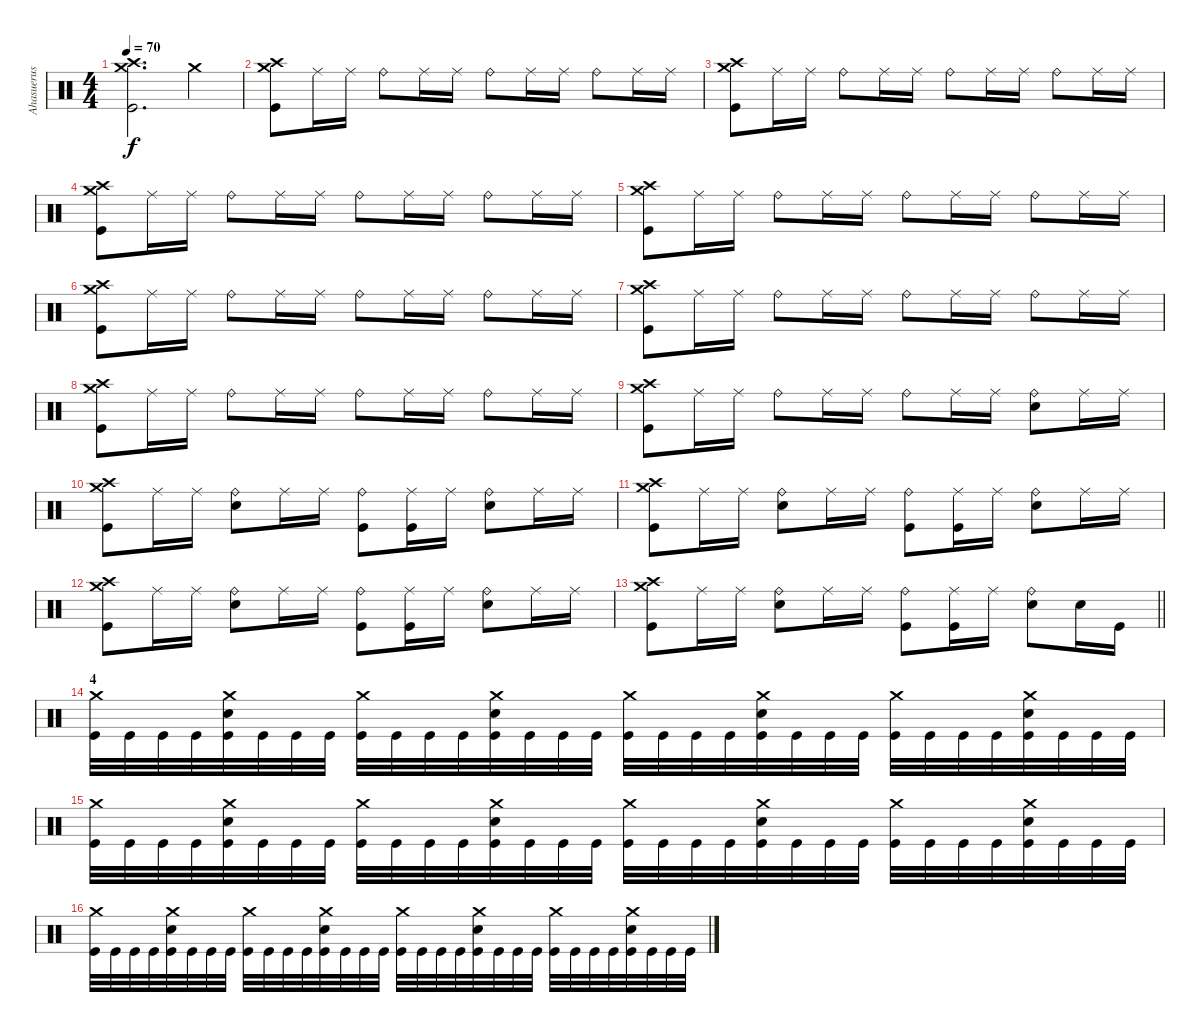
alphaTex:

\track ("Ahasuerus" "Ahasuerus") {instrument percussion}
\staff {score}
\articulation defaults
\ts (4 4)
\tempo 70
\clef neutral
\ks c
("Crash medium (hit)" "Crash high (hit)" "Kick (hit)").2{d dy f} "Crash medium (hit)".4 |
("Crash medium (hit)" "Crash high (hit)" "Kick (hit)").8 "Ride (middle)".16 "Ride (middle)".16 "Ride (bell)".8 "Ride (middle)".16 "Ride (middle)".16 "Ride (bell)".8 "Ride (middle)".16 "Ride (middle)".16 "Ride (bell)".8 "Ride (middle)".16 "Ride (middle)".16 |
("Crash medium (hit)" "Crash high (hit)" "Kick (hit)").8 "Ride (middle)".16 "Ride (middle)".16 "Ride (bell)".8 "Ride (middle)".16 "Ride (middle)".16 "Ride (bell)".8 "Ride (middle)".16 "Ride (middle)".16 "Ride (bell)".8 "Ride (middle)".16 "Ride (middle)".16 |
("Crash medium (hit)" "Crash high (hit)" "Kick (hit)").8 "Ride (middle)".16 "Ride (middle)".16 "Ride (bell)".8 "Ride (middle)".16 "Ride (middle)".16 "Ride (bell)".8 "Ride (middle)".16 "Ride (middle)".16 "Ride (bell)".8 "Ride (middle)".16 "Ride (middle)".16 |
("Crash medium (hit)" "Crash high (hit)" "Kick (hit)").8 "Ride (middle)".16 "Ride (middle)".16 "Ride (bell)".8 "Ride (middle)".16 "Ride (middle)".16 "Ride (bell)".8 "Ride (middle)".16 "Ride (middle)".16 "Ride (bell)".8 "Ride (middle)".16 "Ride (middle)".16 |
("Crash medium (hit)" "Crash high (hit)" "Kick (hit)").8 "Ride (middle)".16 "Ride (middle)".16 "Ride (bell)".8 "Ride (middle)".16 "Ride (middle)".16 "Ride (bell)".8 "Ride (middle)".16 "Ride (middle)".16 "Ride (bell)".8 "Ride (middle)".16 "Ride (middle)".16 |
("Crash medium (hit)" "Crash high (hit)" "Kick (hit)").8 "Ride (middle)".16 "Ride (middle)".16 "Ride (bell)".8 "Ride (middle)".16 "Ride (middle)".16 "Ride (bell)".8 "Ride (middle)".16 "Ride (middle)".16 "Ride (bell)".8 "Ride (middle)".16 "Ride (middle)".16 |
("Crash medium (hit)" "Crash high (hit)" "Kick (hit)").8 "Ride (middle)".16 "Ride (middle)".16 "Ride (bell)".8 "Ride (middle)".16 "Ride (middle)".16 "Ride (bell)".8 "Ride (middle)".16 "Ride (middle)".16 "Ride (bell)".8 "Ride (middle)".16 "Ride (middle)".16 |
("Crash medium (hit)" "Crash high (hit)" "Kick (hit)").8 "Ride (middle)".16 "Ride (middle)".16 "Ride (bell)".8 "Ride (middle)".16 "Ride (middle)".16 "Ride (bell)".8 "Ride (middle)".16 "Ride (middle)".16 ("Ride (bell)" "Electric Snare (hit)").8 "Ride (middle)".16 "Ride (middle)".16 |
("Crash medium (hit)" "Crash high (hit)" "Kick (hit)").8 "Ride (middle)".16 "Ride (middle)".16 ("Ride (bell)" "Electric Snare (hit)").8 "Ride (middle)".16 "Ride (middle)".16 ("Ride (bell)" "Kick (hit)").8 ("Ride (middle)" "Kick (hit)").16 "Ride (middle)".16 ("Ride (bell)" "Electric Snare (hit)").8 "Ride (middle)".16 "Ride (middle)".16 |
("Crash medium (hit)" "Crash high (hit)" "Kick (hit)").8 "Ride (middle)".16 "Ride (middle)".16 ("Ride (bell)" "Electric Snare (hit)").8 "Ride (middle)".16 "Ride (middle)".16 ("Ride (bell)" "Kick (hit)").8 ("Ride (middle)" "Kick (hit)").16 "Ride (middle)".16 ("Ride (bell)" "Electric Snare (hit)").8 "Ride (middle)".16 "Ride (middle)".16 |
("Crash medium (hit)" "Crash high (hit)" "Kick (hit)").8 "Ride (middle)".16 "Ride (middle)".16 ("Ride (bell)" "Electric Snare (hit)").8 "Ride (middle)".16 "Ride (middle)".16 ("Ride (bell)" "Kick (hit)").8 ("Ride (middle)" "Kick (hit)").16 "Ride (middle)".16 ("Ride (bell)" "Electric Snare (hit)").8 "Ride (middle)".16 "Ride (middle)".16 |
\barLineRight lightlight
("Crash medium (hit)" "Crash high (hit)" "Kick (hit)").8 "Ride (middle)".16 "Ride (middle)".16 ("Ride (bell)" "Electric Snare (hit)").8 "Ride (middle)".16 "Ride (middle)".16 ("Ride (bell)" "Kick (hit)").8 ("Ride (middle)" "Kick (hit)").16 "Ride (middle)".16 ("Ride (bell)" "Electric Snare (hit)").8 "Electric Snare (hit)".16 "Kick (hit)".16 |
\section ("" "4")
("Crash medium (hit)" "Kick (hit)").32 "Kick (hit)".32 "Kick (hit)".32 "Kick (hit)".32 ("Crash medium (hit)" "Electric Snare (hit)" "Kick (hit)").32 "Kick (hit)".32 "Kick (hit)".32 "Kick (hit)".32 ("Crash medium (hit)" "Kick (hit)").32 "Kick (hit)".32 "Kick (hit)".32 "Kick (hit)".32 ("Crash medium (hit)" "Electric Snare (hit)" "Kick (hit)").32 "Kick (hit)".32 "Kick (hit)".32 "Kick (hit)".32 ("Crash medium (hit)" "Kick (hit)").32 "Kick (hit)".32 "Kick (hit)".32 "Kick (hit)".32 ("Crash medium (hit)" "Electric Snare (hit)" "Kick (hit)").32 "Kick (hit)".32 "Kick (hit)".32 "Kick (hit)".32 ("Crash medium (hit)" "Kick (hit)").32 "Kick (hit)".32 "Kick (hit)".32 "Kick (hit)".32 ("Crash medium (hit)" "Electric Snare (hit)" "Kick (hit)").32 "Kick (hit)".32 "Kick (hit)".32 "Kick (hit)".32 |
("Crash medium (hit)" "Kick (hit)").32 "Kick (hit)".32 "Kick (hit)".32 "Kick (hit)".32 ("Crash medium (hit)" "Electric Snare (hit)" "Kick (hit)").32 "Kick (hit)".32 "Kick (hit)".32 "Kick (hit)".32 ("Crash medium (hit)" "Kick (hit)").32 "Kick (hit)".32 "Kick (hit)".32 "Kick (hit)".32 ("Crash medium (hit)" "Electric Snare (hit)" "Kick (hit)").32 "Kick (hit)".32 "Kick (hit)".32 "Kick (hit)".32 ("Crash medium (hit)" "Kick (hit)").32 "Kick (hit)".32 "Kick (hit)".32 "Kick (hit)".32 ("Crash medium (hit)" "Electric Snare (hit)" "Kick (hit)").32 "Kick (hit)".32 "Kick (hit)".32 "Kick (hit)".32 ("Crash medium (hit)" "Kick (hit)").32 "Kick (hit)".32 "Kick (hit)".32 "Kick (hit)".32 ("Crash medium (hit)" "Electric Snare (hit)" "Kick (hit)").32 "Kick (hit)".32 "Kick (hit)".32 "Kick (hit)".32 |
("Crash medium (hit)" "Kick (hit)").32 "Kick (hit)".32 "Kick (hit)".32 "Kick (hit)".32 ("Crash medium (hit)" "Electric Snare (hit)" "Kick (hit)").32 "Kick (hit)".32 "Kick (hit)".32 "Kick (hit)".32 ("Crash medium (hit)" "Kick (hit)").32 "Kick (hit)".32 "Kick (hit)".32 "Kick (hit)".32 ("Crash medium (hit)" "Electric Snare (hit)" "Kick (hit)").32 "Kick (hit)".32 "Kick (hit)".32 "Kick (hit)".32 ("Crash medium (hit)" "Kick (hit)").32 "Kick (hit)".32 "Kick (hit)".32 "Kick (hit)".32 ("Crash medium (hit)" "Electric Snare (hit)" "Kick (hit)").32 "Kick (hit)".32 "Kick (hit)".32 "Kick (hit)".32 ("Crash medium (hit)" "Kick (hit)").32 "Kick (hit)".32 "Kick (hit)".32 "Kick (hit)".32 ("Crash medium (hit)" "Electric Snare (hit)" "Kick (hit)").32 "Kick (hit)".32 "Kick (hit)".32 "Kick (hit)".32
